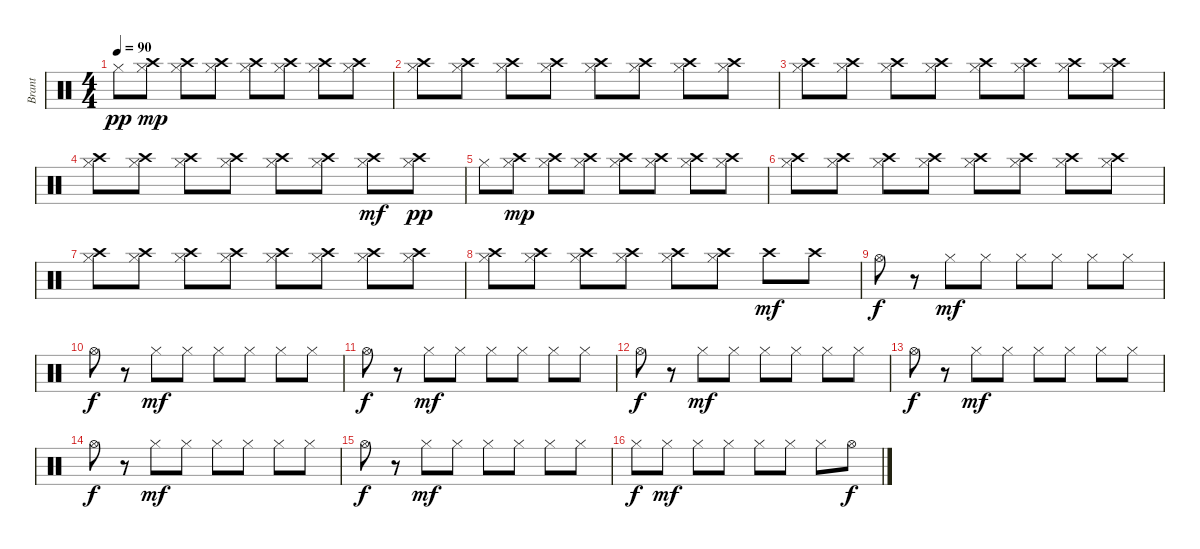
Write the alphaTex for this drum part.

\track ("Brant" "Brant") {instrument percussion}
\staff {score}
\articulation defaults
\ts (4 4)
\tempo 90
\clef neutral
\ks c "Hi-Hat (closed)".8{dy pp}
("Hi-Hat (closed)" "Crash high (hit)").8{dy mp} ("Hi-Hat (closed)" "Crash high (hit)").8 ("Hi-Hat (closed)" "Crash high (hit)").8 ("Hi-Hat (closed)" "Crash high (hit)").8 ("Hi-Hat (closed)" "Crash high (hit)").8 ("Hi-Hat (closed)" "Crash high (hit)").8 ("Hi-Hat (closed)" "Crash high (hit)").8 |
("Hi-Hat (closed)" "Crash high (hit)").8 ("Hi-Hat (closed)" "Crash high (hit)").8 ("Hi-Hat (closed)" "Crash high (hit)").8 ("Hi-Hat (closed)" "Crash high (hit)").8 ("Hi-Hat (closed)" "Crash high (hit)").8 ("Hi-Hat (closed)" "Crash high (hit)").8 ("Hi-Hat (closed)" "Crash high (hit)").8 ("Hi-Hat (closed)" "Crash high (hit)").8 |
("Hi-Hat (closed)" "Crash high (hit)").8 ("Hi-Hat (closed)" "Crash high (hit)").8 ("Hi-Hat (closed)" "Crash high (hit)").8 ("Hi-Hat (closed)" "Crash high (hit)").8 ("Hi-Hat (closed)" "Crash high (hit)").8 ("Hi-Hat (closed)" "Crash high (hit)").8 ("Hi-Hat (closed)" "Crash high (hit)").8 ("Hi-Hat (closed)" "Crash high (hit)").8 |
("Hi-Hat (closed)" "Crash high (hit)").8 ("Hi-Hat (closed)" "Crash high (hit)").8 ("Hi-Hat (closed)" "Crash high (hit)").8 ("Hi-Hat (closed)" "Crash high (hit)").8 ("Hi-Hat (closed)" "Crash high (hit)").8 ("Hi-Hat (closed)" "Crash high (hit)").8 ("Hi-Hat (closed)" "Crash high (hit)").8{dy mf} ("Hi-Hat (closed)" "Crash high (hit)").8{dy pp} |
"Hi-Hat (closed)".8 ("Hi-Hat (closed)" "Crash high (hit)").8{dy mp} ("Hi-Hat (closed)" "Crash high (hit)").8 ("Hi-Hat (closed)" "Crash high (hit)").8 ("Hi-Hat (closed)" "Crash high (hit)").8 ("Hi-Hat (closed)" "Crash high (hit)").8 ("Hi-Hat (closed)" "Crash high (hit)").8 ("Hi-Hat (closed)" "Crash high (hit)").8 |
("Hi-Hat (closed)" "Crash high (hit)").8 ("Hi-Hat (closed)" "Crash high (hit)").8 ("Hi-Hat (closed)" "Crash high (hit)").8 ("Hi-Hat (closed)" "Crash high (hit)").8 ("Hi-Hat (closed)" "Crash high (hit)").8 ("Hi-Hat (closed)" "Crash high (hit)").8 ("Hi-Hat (closed)" "Crash high (hit)").8 ("Hi-Hat (closed)" "Crash high (hit)").8 |
("Hi-Hat (closed)" "Crash high (hit)").8 ("Hi-Hat (closed)" "Crash high (hit)").8 ("Hi-Hat (closed)" "Crash high (hit)").8 ("Hi-Hat (closed)" "Crash high (hit)").8 ("Hi-Hat (closed)" "Crash high (hit)").8 ("Hi-Hat (closed)" "Crash high (hit)").8 ("Hi-Hat (closed)" "Crash high (hit)").8 ("Hi-Hat (closed)" "Crash high (hit)").8 |
("Hi-Hat (closed)" "Crash high (hit)").8 ("Hi-Hat (closed)" "Crash high (hit)").8 ("Hi-Hat (closed)" "Crash high (hit)").8 ("Hi-Hat (closed)" "Crash high (hit)").8 ("Hi-Hat (closed)" "Crash high (hit)").8 ("Hi-Hat (closed)" "Crash high (hit)").8 "Crash high (hit)".8{dy mf} "Crash high (hit)".8 |
"Hi-Hat (open)".8{dy f} r.8 "Hi-Hat (closed)".8{dy mf} "Hi-Hat (closed)".8 "Hi-Hat (closed)".8 "Hi-Hat (closed)".8 "Hi-Hat (closed)".8 "Hi-Hat (closed)".8 |
"Hi-Hat (open)".8{dy f} r.8 "Hi-Hat (closed)".8{dy mf} "Hi-Hat (closed)".8 "Hi-Hat (closed)".8 "Hi-Hat (closed)".8 "Hi-Hat (closed)".8 "Hi-Hat (closed)".8 |
"Hi-Hat (open)".8{dy f} r.8 "Hi-Hat (closed)".8{dy mf} "Hi-Hat (closed)".8 "Hi-Hat (closed)".8 "Hi-Hat (closed)".8 "Hi-Hat (closed)".8 "Hi-Hat (closed)".8 |
"Hi-Hat (open)".8{dy f} r.8 "Hi-Hat (closed)".8{dy mf} "Hi-Hat (closed)".8 "Hi-Hat (closed)".8 "Hi-Hat (closed)".8 "Hi-Hat (closed)".8 "Hi-Hat (closed)".8 |
"Hi-Hat (open)".8{dy f} r.8 "Hi-Hat (closed)".8{dy mf} "Hi-Hat (closed)".8 "Hi-Hat (closed)".8 "Hi-Hat (closed)".8 "Hi-Hat (closed)".8 "Hi-Hat (closed)".8 |
"Hi-Hat (open)".8{dy f} r.8 "Hi-Hat (closed)".8{dy mf} "Hi-Hat (closed)".8 "Hi-Hat (closed)".8 "Hi-Hat (closed)".8 "Hi-Hat (closed)".8 "Hi-Hat (closed)".8 |
"Hi-Hat (open)".8{dy f} r.8 "Hi-Hat (closed)".8{dy mf} "Hi-Hat (closed)".8 "Hi-Hat (closed)".8 "Hi-Hat (closed)".8 "Hi-Hat (closed)".8 "Hi-Hat (closed)".8 |
"Hi-Hat (closed)".8{dy f} "Hi-Hat (closed)".8{dy mf} "Hi-Hat (closed)".8 "Hi-Hat (closed)".8 "Hi-Hat (closed)".8 "Hi-Hat (closed)".8 "Hi-Hat (closed)".8 "Hi-Hat (open)".8{dy f}
